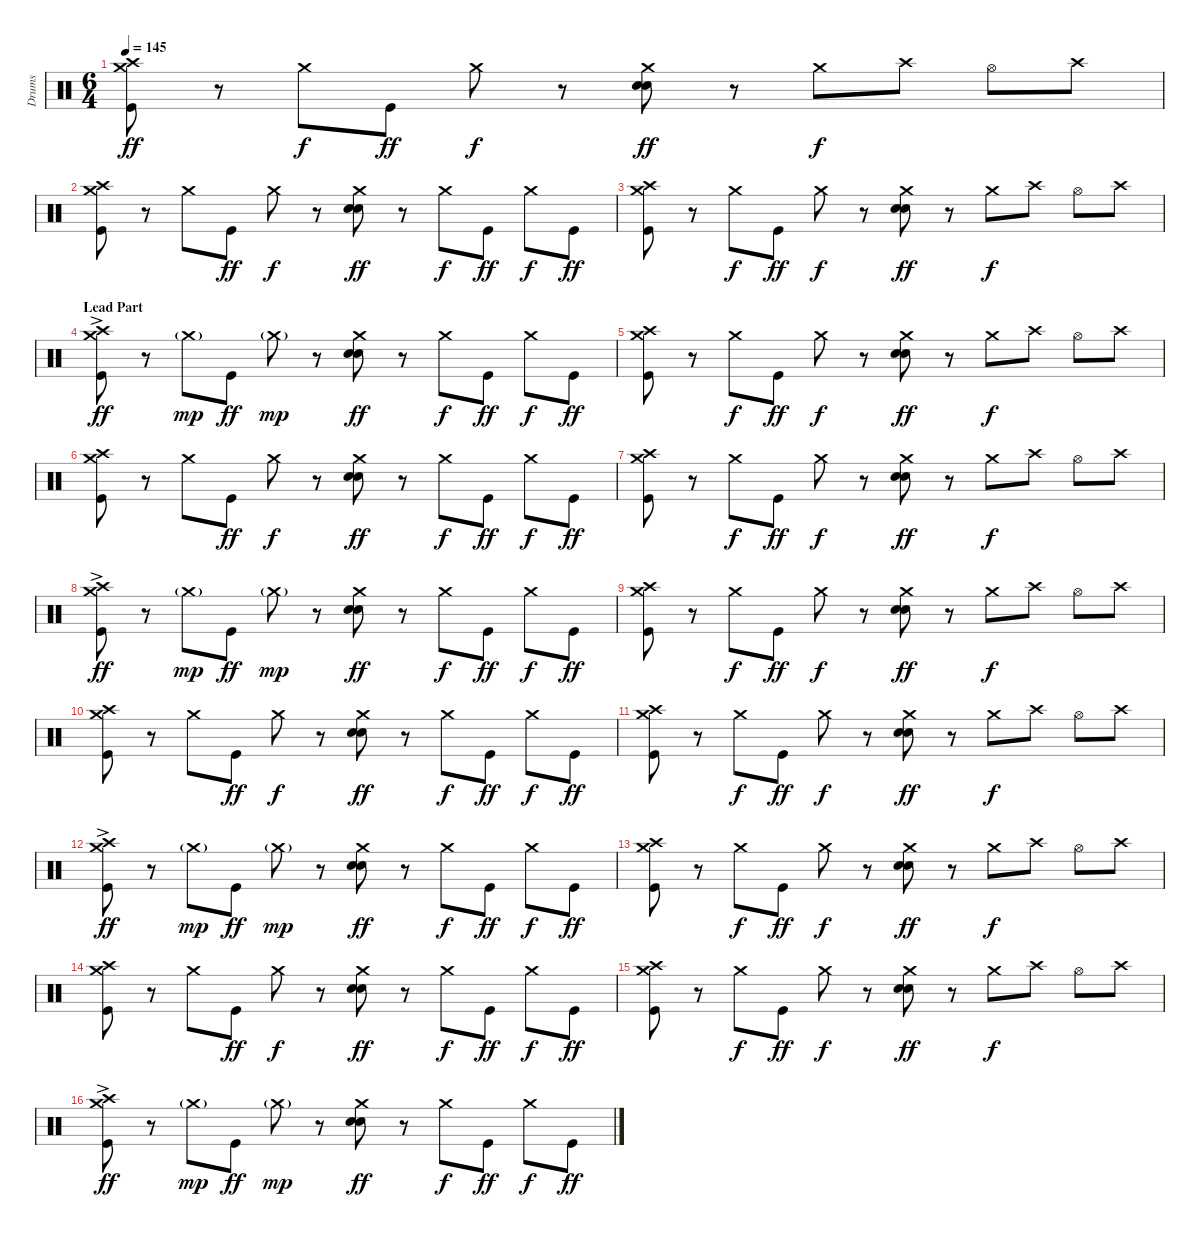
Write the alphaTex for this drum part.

\track ("Drums" "Drums") {instrument percussion}
\staff {score}
\articulation defaults
\ts (6 4)
\tempo 145
\clef neutral
\ks c
("Kick (hit)" "Crash high (hit)" "Crash medium (hit)").8{dy ff} r.8 "Crash medium (hit)".8{dy f} "Kick (hit)".8{dy ff} "Crash medium (hit)".8{dy f} r.8 ("Electric Snare (hit)" "Electric Snare (hit)" "Crash medium (hit)").8{dy ff} r.8 "Crash medium (hit)".8{dy f} "Crash high (hit)".8 "Hi-Hat (open)".8 "Crash high (hit)".8 |
("Kick (hit)" "Crash high (hit)" "Crash medium (hit)").8 r.8 "Crash medium (hit)".8 "Kick (hit)".8{dy ff} "Crash medium (hit)".8{dy f} r.8 ("Electric Snare (hit)" "Electric Snare (hit)" "Crash medium (hit)").8{dy ff} r.8 "Crash medium (hit)".8{dy f} "Kick (hit)".8{dy ff} "Crash medium (hit)".8{dy f} "Kick (hit)".8{dy ff} |
("Kick (hit)" "Crash high (hit)" "Crash medium (hit)").8 r.8 "Crash medium (hit)".8{dy f} "Kick (hit)".8{dy ff} "Crash medium (hit)".8{dy f} r.8 ("Electric Snare (hit)" "Electric Snare (hit)" "Crash medium (hit)").8{dy ff} r.8 "Crash medium (hit)".8{dy f} "Crash high (hit)".8 "Hi-Hat (open)".8 "Crash high (hit)".8 |
\section ("" "Lead Part")
("Kick (hit)" "Crash high (hit)" "Crash medium (hit)"{ac}).8{dy ff} r.8 "Crash medium (hit)"{g}.8{dy mp} "Kick (hit)".8{dy ff} "Crash medium (hit)"{g}.8{dy mp} r.8 ("Electric Snare (hit)" "Electric Snare (hit)" "Crash medium (hit)").8{dy ff} r.8 "Crash medium (hit)".8{dy f} "Kick (hit)".8{dy ff} "Crash medium (hit)".8{dy f} "Kick (hit)".8{dy ff} |
("Kick (hit)" "Crash high (hit)" "Crash medium (hit)").8 r.8 "Crash medium (hit)".8{dy f} "Kick (hit)".8{dy ff} "Crash medium (hit)".8{dy f} r.8 ("Electric Snare (hit)" "Electric Snare (hit)" "Crash medium (hit)").8{dy ff} r.8 "Crash medium (hit)".8{dy f} "Crash high (hit)".8 "Hi-Hat (open)".8 "Crash high (hit)".8 |
("Kick (hit)" "Crash high (hit)" "Crash medium (hit)").8 r.8 "Crash medium (hit)".8 "Kick (hit)".8{dy ff} "Crash medium (hit)".8{dy f} r.8 ("Electric Snare (hit)" "Electric Snare (hit)" "Crash medium (hit)").8{dy ff} r.8 "Crash medium (hit)".8{dy f} "Kick (hit)".8{dy ff} "Crash medium (hit)".8{dy f} "Kick (hit)".8{dy ff} |
("Kick (hit)" "Crash high (hit)" "Crash medium (hit)").8 r.8 "Crash medium (hit)".8{dy f} "Kick (hit)".8{dy ff} "Crash medium (hit)".8{dy f} r.8 ("Electric Snare (hit)" "Electric Snare (hit)" "Crash medium (hit)").8{dy ff} r.8 "Crash medium (hit)".8{dy f} "Crash high (hit)".8 "Hi-Hat (open)".8 "Crash high (hit)".8 |
("Kick (hit)" "Crash high (hit)" "Crash medium (hit)"{ac}).8{dy ff} r.8 "Crash medium (hit)"{g}.8{dy mp} "Kick (hit)".8{dy ff} "Crash medium (hit)"{g}.8{dy mp} r.8 ("Electric Snare (hit)" "Electric Snare (hit)" "Crash medium (hit)").8{dy ff} r.8 "Crash medium (hit)".8{dy f} "Kick (hit)".8{dy ff} "Crash medium (hit)".8{dy f} "Kick (hit)".8{dy ff} |
("Kick (hit)" "Crash high (hit)" "Crash medium (hit)").8 r.8 "Crash medium (hit)".8{dy f} "Kick (hit)".8{dy ff} "Crash medium (hit)".8{dy f} r.8 ("Electric Snare (hit)" "Electric Snare (hit)" "Crash medium (hit)").8{dy ff} r.8 "Crash medium (hit)".8{dy f} "Crash high (hit)".8 "Hi-Hat (open)".8 "Crash high (hit)".8 |
("Kick (hit)" "Crash high (hit)" "Crash medium (hit)").8 r.8 "Crash medium (hit)".8 "Kick (hit)".8{dy ff} "Crash medium (hit)".8{dy f} r.8 ("Electric Snare (hit)" "Electric Snare (hit)" "Crash medium (hit)").8{dy ff} r.8 "Crash medium (hit)".8{dy f} "Kick (hit)".8{dy ff} "Crash medium (hit)".8{dy f} "Kick (hit)".8{dy ff} |
("Kick (hit)" "Crash high (hit)" "Crash medium (hit)").8 r.8 "Crash medium (hit)".8{dy f} "Kick (hit)".8{dy ff} "Crash medium (hit)".8{dy f} r.8 ("Electric Snare (hit)" "Electric Snare (hit)" "Crash medium (hit)").8{dy ff} r.8 "Crash medium (hit)".8{dy f} "Crash high (hit)".8 "Hi-Hat (open)".8 "Crash high (hit)".8 |
("Kick (hit)" "Crash high (hit)" "Crash medium (hit)"{ac}).8{dy ff} r.8 "Crash medium (hit)"{g}.8{dy mp} "Kick (hit)".8{dy ff} "Crash medium (hit)"{g}.8{dy mp} r.8 ("Electric Snare (hit)" "Electric Snare (hit)" "Crash medium (hit)").8{dy ff} r.8 "Crash medium (hit)".8{dy f} "Kick (hit)".8{dy ff} "Crash medium (hit)".8{dy f} "Kick (hit)".8{dy ff} |
("Kick (hit)" "Crash high (hit)" "Crash medium (hit)").8 r.8 "Crash medium (hit)".8{dy f} "Kick (hit)".8{dy ff} "Crash medium (hit)".8{dy f} r.8 ("Electric Snare (hit)" "Electric Snare (hit)" "Crash medium (hit)").8{dy ff} r.8 "Crash medium (hit)".8{dy f} "Crash high (hit)".8 "Hi-Hat (open)".8 "Crash high (hit)".8 |
("Kick (hit)" "Crash high (hit)" "Crash medium (hit)").8 r.8 "Crash medium (hit)".8 "Kick (hit)".8{dy ff} "Crash medium (hit)".8{dy f} r.8 ("Electric Snare (hit)" "Electric Snare (hit)" "Crash medium (hit)").8{dy ff} r.8 "Crash medium (hit)".8{dy f} "Kick (hit)".8{dy ff} "Crash medium (hit)".8{dy f} "Kick (hit)".8{dy ff} |
("Kick (hit)" "Crash high (hit)" "Crash medium (hit)").8 r.8 "Crash medium (hit)".8{dy f} "Kick (hit)".8{dy ff} "Crash medium (hit)".8{dy f} r.8 ("Electric Snare (hit)" "Electric Snare (hit)" "Crash medium (hit)").8{dy ff} r.8 "Crash medium (hit)".8{dy f} "Crash high (hit)".8 "Hi-Hat (open)".8 "Crash high (hit)".8 |
("Kick (hit)" "Crash high (hit)" "Crash medium (hit)"{ac}).8{dy ff} r.8 "Crash medium (hit)"{g}.8{dy mp} "Kick (hit)".8{dy ff} "Crash medium (hit)"{g}.8{dy mp} r.8 ("Electric Snare (hit)" "Electric Snare (hit)" "Crash medium (hit)").8{dy ff} r.8 "Crash medium (hit)".8{dy f} "Kick (hit)".8{dy ff} "Crash medium (hit)".8{dy f} "Kick (hit)".8{dy ff}
